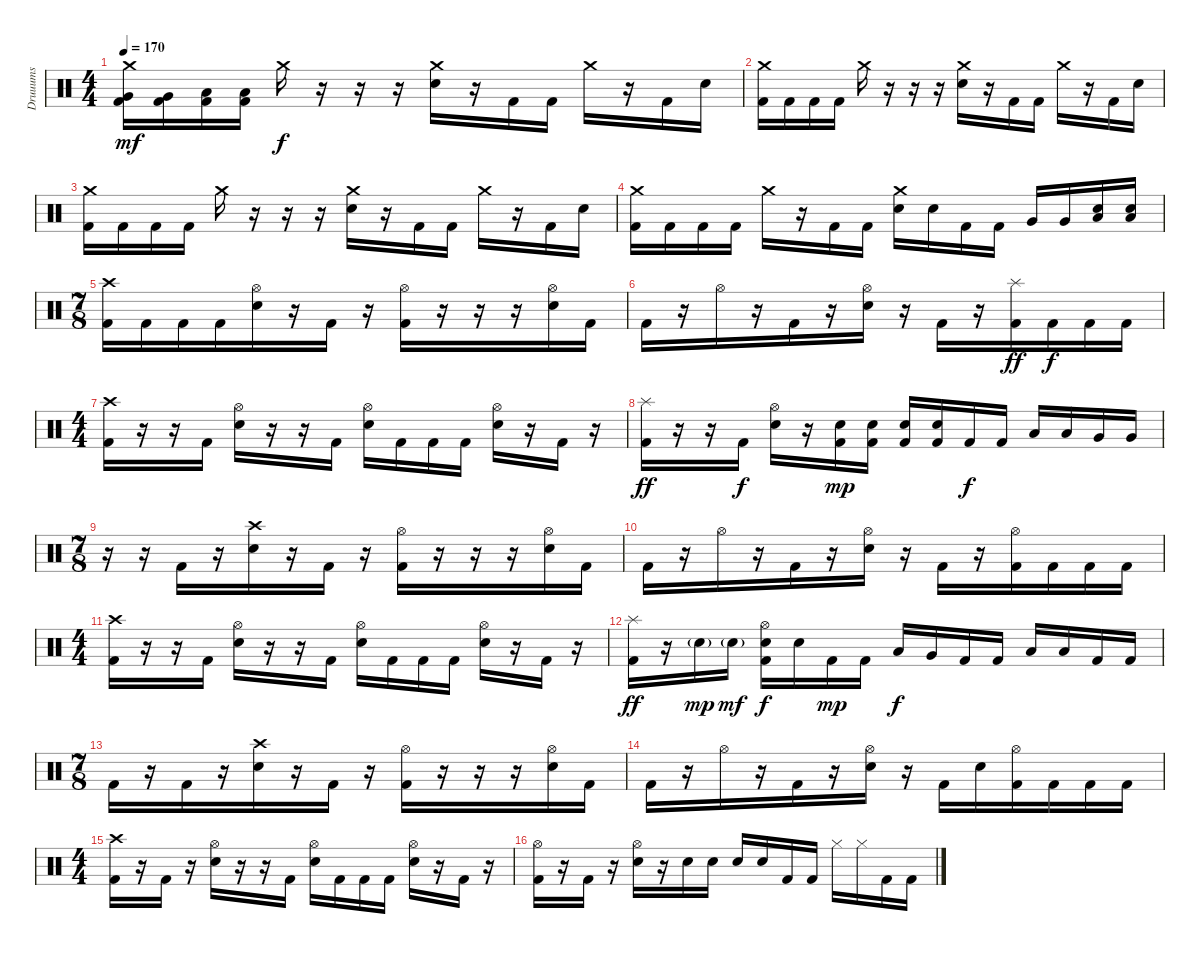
\track ("Druuums" "Druuums") {instrument percussion}
\staff {score}
\articulation defaults
\ts (4 4)
\tempo 170
\clef neutral
\ks c
("Crash medium (hit)" "Very Low Tom (hit)" "Kick (hit) 2").16{dy mf} ("Very Low Tom (hit)" "Kick (hit) 2").16 ("Low Floor Tom (hit)" "Kick (hit) 2").16 ("Low Floor Tom (hit)" "Kick (hit) 2").16 "Crash medium (hit)".16{dy f} r.16 r.16 r.16 ("Crash medium (hit)" "Electric Snare (hit)").16 r.16 "Kick (hit) 2".16 "Kick (hit) 2".16 "Crash medium (hit)".16 r.16 "Kick (hit) 2".16 "Electric Snare (hit)".16 |
("Crash medium (hit)" "Kick (hit) 2").16 "Kick (hit) 2".16 "Kick (hit) 2".16 "Kick (hit) 2".16 "Crash medium (hit)".16 r.16 r.16 r.16 ("Crash medium (hit)" "Electric Snare (hit)").16 r.16 "Kick (hit) 2".16 "Kick (hit) 2".16 "Crash medium (hit)".16 r.16 "Kick (hit) 2".16 "Electric Snare (hit)".16 |
("Crash medium (hit)" "Kick (hit) 2").16 "Kick (hit) 2".16 "Kick (hit) 2".16 "Kick (hit) 2".16 "Crash medium (hit)".16 r.16 r.16 r.16 ("Crash medium (hit)" "Electric Snare (hit)").16 r.16 "Kick (hit) 2".16 "Kick (hit) 2".16 "Crash medium (hit)".16 r.16 "Kick (hit) 2".16 "Electric Snare (hit)".16 |
("Crash medium (hit)" "Kick (hit) 2").16 "Kick (hit) 2".16 "Kick (hit) 2".16 "Kick (hit) 2".16 "Crash medium (hit)".16 r.16 "Kick (hit) 2".16 "Kick (hit) 2".16 ("Crash medium (hit)" "Electric Snare (hit)").16 "Electric Snare (hit)".16 "Kick (hit) 2".16 "Kick (hit) 2".16 "Very Low Tom (hit)".16 "Very Low Tom (hit)".16 ("Electric Snare (hit)" "Low Floor Tom (hit)").16 ("Electric Snare (hit)" "Low Floor Tom (hit)").16 |
\ts (7 8)
("Crash high (hit)" "Kick (hit) 2").16 "Kick (hit) 2".16 "Kick (hit) 2".16 "Kick (hit) 2".16 ("Hi-Hat (open)" "Electric Snare (hit)").16 r.16 "Kick (hit) 2".16 r.16 ("Hi-Hat (open)" "Kick (hit) 2").16 r.16 r.16 r.16 ("Hi-Hat (open)" "Electric Snare (hit)").16 "Kick (hit) 2".16 |
"Kick (hit) 2".16 r.16 "Hi-Hat (open)".16 r.16 "Kick (hit) 2".16 r.16 ("Hi-Hat (open)" "Electric Snare (hit)").16 r.16 "Kick (hit) 2".16 r.16 ("Splash (hit)" "Kick (hit) 2").16{dy ff} "Kick (hit) 2".16{dy f} "Kick (hit) 2".16 "Kick (hit) 2".16 |
\ts (4 4)
("Crash high (hit)" "Kick (hit) 2").16 r.16 r.16 "Kick (hit) 2".16 ("Hi-Hat (open)" "Electric Snare (hit)").16 r.16 r.16 "Kick (hit) 2".16 ("Hi-Hat (open)" "Electric Snare (hit)").16 "Kick (hit) 2".16 "Kick (hit) 2".16 "Kick (hit) 2".16 ("Hi-Hat (open)" "Electric Snare (hit)").16 r.16 "Kick (hit) 2".16 r.16 |
("Splash (hit)" "Kick (hit) 2").16{dy ff} r.16 r.16 "Kick (hit) 2".16{dy f} ("Hi-Hat (open)" "Electric Snare (hit)").16 r.16 ("Electric Snare (hit)" "Kick (hit) 2").16{dy mp} ("Electric Snare (hit)" "Kick (hit) 2").16 ("Electric Snare (hit)" "Kick (hit) 2").16 ("Electric Snare (hit)" "Kick (hit) 2").16 "Kick (hit) 2".16{dy f} "Kick (hit) 2".16 "Low Tom (hit)".16 "Low Tom (hit)".16 "Very Low Tom (hit)".16 "Very Low Tom (hit)".16 |
\ts (7 8)
r.16 r.16 "Kick (hit) 2".16 r.16 ("Crash high (hit)" "Electric Snare (hit)").16 r.16 "Kick (hit) 2".16 r.16 ("Hi-Hat (open)" "Kick (hit) 2").16 r.16 r.16 r.16 ("Hi-Hat (open)" "Electric Snare (hit)").16 "Kick (hit) 2".16 |
"Kick (hit) 2".16 r.16 "Hi-Hat (open)".16 r.16 "Kick (hit) 2".16 r.16 ("Hi-Hat (open)" "Electric Snare (hit)").16 r.16 "Kick (hit) 2".16 r.16 ("Hi-Hat (open)" "Kick (hit) 2").16 "Kick (hit) 2".16 "Kick (hit) 2".16 "Kick (hit) 2".16 |
\ts (4 4)
("Crash high (hit)" "Kick (hit) 2").16 r.16 r.16 "Kick (hit) 2".16 ("Hi-Hat (open)" "Electric Snare (hit)").16 r.16 r.16 "Kick (hit) 2".16 ("Hi-Hat (open)" "Electric Snare (hit)").16 "Kick (hit) 2".16 "Kick (hit) 2".16 "Kick (hit) 2".16 ("Hi-Hat (open)" "Electric Snare (hit)").16 r.16 "Kick (hit) 2".16 r.16 |
("Splash (hit)" "Kick (hit) 2").16{dy ff} r.16 "Electric Snare (hit)"{g}.16{dy mp} "Electric Snare (hit)"{g}.16{dy mf} ("Hi-Hat (open)" "Electric Snare (hit)" "Kick (hit) 2").16{dy f} "Electric Snare (hit)".16 "Kick (hit) 2".16{dy mp} "Kick (hit) 2".16 "Low Tom (hit)".16{dy f} "Very Low Tom (hit)".16 "Kick (hit) 2".16 "Kick (hit) 2".16 "Low Tom (hit)".16 "Low Tom (hit)".16 "Kick (hit) 2".16 "Kick (hit) 2".16 |
\ts (7 8)
"Kick (hit) 2".16 r.16 "Kick (hit) 2".16 r.16 ("Crash high (hit)" "Electric Snare (hit)").16 r.16 "Kick (hit) 2".16 r.16 ("Hi-Hat (open)" "Kick (hit) 2").16 r.16 r.16 r.16 ("Hi-Hat (open)" "Electric Snare (hit)").16 "Kick (hit) 2".16 |
"Kick (hit) 2".16 r.16 "Hi-Hat (open)".16 r.16 "Kick (hit) 2".16 r.16 ("Hi-Hat (open)" "Electric Snare (hit)").16 r.16 "Kick (hit) 2".16 "Electric Snare (hit)".16 ("Hi-Hat (open)" "Kick (hit) 2").16 "Kick (hit) 2".16 "Kick (hit) 2".16 "Kick (hit) 2".16 |
\ts (4 4)
("Crash high (hit)" "Kick (hit) 2").16 r.16 "Kick (hit) 2".16 r.16 ("Hi-Hat (open)" "Electric Snare (hit)").16 r.16 r.16 "Kick (hit) 2".16 ("Hi-Hat (open)" "Electric Snare (hit)").16 "Kick (hit) 2".16 "Kick (hit) 2".16 "Kick (hit) 2".16 ("Hi-Hat (open)" "Electric Snare (hit)").16 r.16 "Kick (hit) 2".16 r.16 |
("Hi-Hat (open)" "Kick (hit) 2").16 r.16 "Kick (hit) 2".16 r.16 ("Hi-Hat (open)" "Electric Snare (hit)").16 r.16 "Electric Snare (hit)".16 "Electric Snare (hit)".16 "Electric Snare (hit)".16 "Electric Snare (hit)".16 "Kick (hit) 2".16 "Kick (hit) 2".16 "Hi-Hat (closed)".16 "Hi-Hat (closed)".16 "Kick (hit) 2".16 "Kick (hit) 2".16
